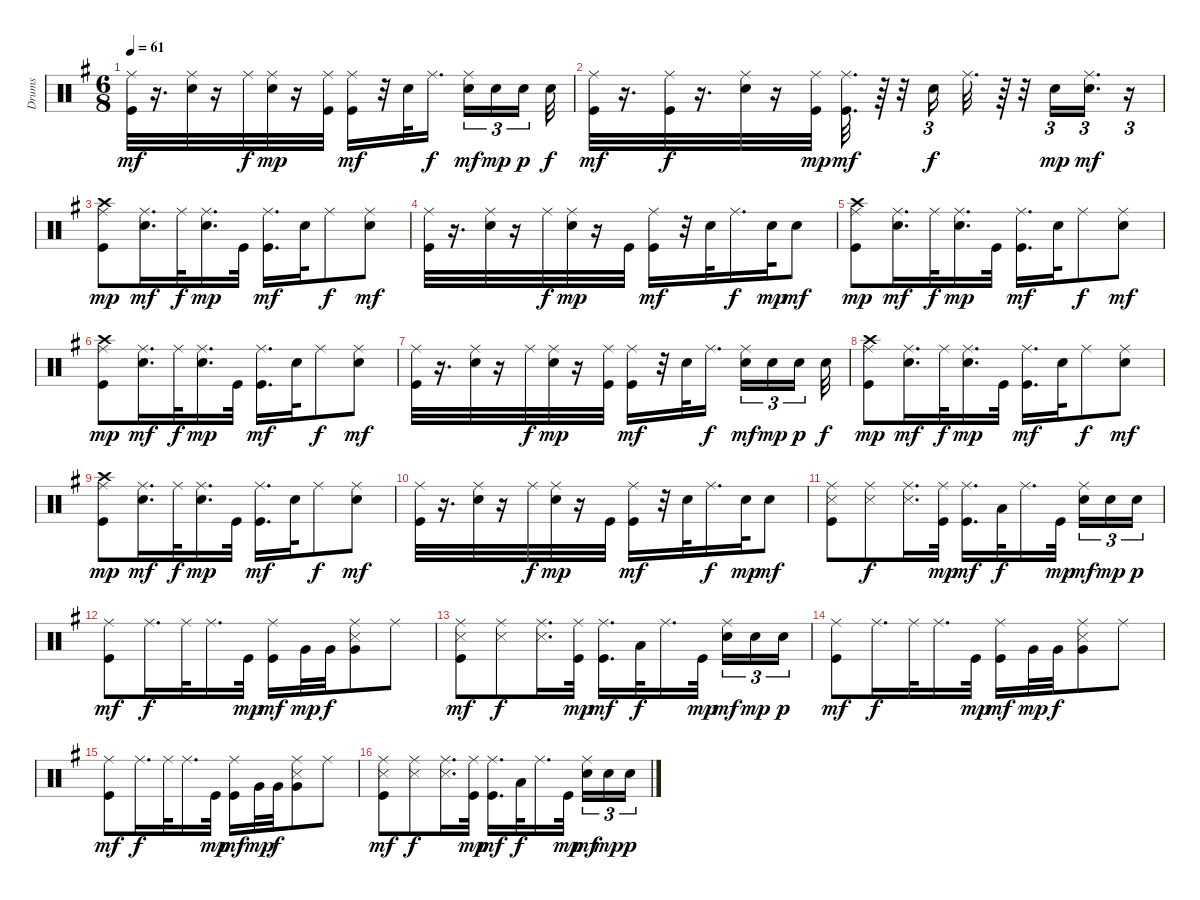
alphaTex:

\track ("Drums" "Drums") {instrument percussion}
\staff {score}
\articulation defaults
\ts (6 8)
\tempo 61
\clef neutral
\ks g
("Kick (hit)" "Ride (middle)").32{dy mf} r.16{d} ("Snare (hit) 2" "Ride (middle)").32 r.16 "Ride (middle)".32{dy f} ("Snare (hit) 2" "Ride (middle)").32{dy mp} r.16 ("Kick (hit)" "Ride (middle)").32 ("Kick (hit)" "Ride (middle)").16{dy mf} r.32 "Snare (hit) 2".32 "Ride (middle)".16{d dy f beam splitsecondary} ("Electric Snare (hit)" "Ride (middle)").16{tu (3 2) dy mf} "Electric Snare (hit)".16{tu (3 2) dy mp} "Electric Snare (hit)".16{tu (3 2) dy p beam splitsecondary} "Electric Snare (hit)".32{dy f} |
("Kick (hit)" "Ride (middle)").32{dy mf} r.16{d} ("Kick (hit)" "Ride (middle)").32{dy f} r.16{d} ("Snare (hit) 2" "Ride (middle)").32 r.16 ("Kick (hit)" "Ride (middle)").32{dy mp} ("Kick (hit)" "Ride (middle)").32{d dy mf} r.64 r.32 "Snare (hit) 2".16{tu (3 2) dy f} "Ride (middle)".32{d} r.64 r.32 "Snare (hit) 2".16{tu (3 2) dy mp} ("Snare (hit) 2" "Ride (middle)").16{d tu (3 2) dy mf} r.16{tu (3 2)} |
("Kick (hit)" "Crash high (hit)" "Ride (middle)").8{dy mp} ("Snare (hit) 2" "Ride (middle)").16{d dy mf} "Ride (middle)".32{dy f} ("Snare (hit) 2" "Ride (middle)").16{d dy mp} "Kick (hit)".32 ("Kick (hit)" "Ride (middle)").16{d dy mf} "Snare (hit) 2".32 "Ride (middle)".8{dy f} ("Snare (hit) 2" "Ride (middle)").8{dy mf} |
("Kick (hit)" "Ride (middle)").32 r.16{d} ("Snare (hit) 2" "Ride (middle)").32 r.16 "Ride (middle)".32{dy f} ("Snare (hit) 2" "Ride (middle)").32{dy mp} r.16 "Kick (hit)".32 ("Kick (hit)" "Ride (middle)").16{dy mf} r.32 "Snare (hit) 2".32 "Ride (middle)".16{d dy f} "Electric Snare (hit)".32{dy mp} "Electric Snare (hit)".8{dy mf} |
("Kick (hit)" "Crash high (hit)" "Ride (middle)").8{dy mp} ("Snare (hit) 2" "Ride (middle)").16{d dy mf} "Ride (middle)".32{dy f} ("Snare (hit) 2" "Ride (middle)").16{d dy mp} "Kick (hit)".32 ("Kick (hit)" "Ride (middle)").16{d dy mf} "Snare (hit) 2".32 "Ride (middle)".8{dy f} ("Snare (hit) 2" "Ride (middle)").8{dy mf} |
("Kick (hit)" "Crash high (hit)" "Ride (middle)").8{dy mp} ("Snare (hit) 2" "Ride (middle)").16{d dy mf} "Ride (middle)".32{dy f} ("Snare (hit) 2" "Ride (middle)").16{d dy mp} "Kick (hit)".32 ("Kick (hit)" "Ride (middle)").16{d dy mf} "Snare (hit) 2".32 "Ride (middle)".8{dy f} ("Snare (hit) 2" "Ride (middle)").8{dy mf} |
("Kick (hit)" "Ride (middle)").32 r.16{d} ("Snare (hit) 2" "Ride (middle)").32 r.16 "Ride (middle)".32{dy f} ("Snare (hit) 2" "Ride (middle)").32{dy mp} r.16 ("Kick (hit)" "Ride (middle)").32 ("Kick (hit)" "Ride (middle)").16{dy mf} r.32 "Snare (hit) 2".32 "Ride (middle)".16{d dy f beam splitsecondary} ("Electric Snare (hit)" "Ride (middle)").16{tu (3 2) dy mf} "Electric Snare (hit)".16{tu (3 2) dy mp} "Electric Snare (hit)".16{tu (3 2) dy p beam splitsecondary} "Electric Snare (hit)".32{dy f} |
("Kick (hit)" "Crash high (hit)" "Ride (middle)").8{dy mp} ("Snare (hit) 2" "Ride (middle)").16{d dy mf} "Ride (middle)".32{dy f} ("Snare (hit) 2" "Ride (middle)").16{d dy mp} "Kick (hit)".32 ("Kick (hit)" "Ride (middle)").16{d dy mf} "Snare (hit) 2".32 "Ride (middle)".8{dy f} ("Snare (hit) 2" "Ride (middle)").8{dy mf} |
("Kick (hit)" "Crash high (hit)" "Ride (middle)").8{dy mp} ("Snare (hit) 2" "Ride (middle)").16{d dy mf} "Ride (middle)".32{dy f} ("Snare (hit) 2" "Ride (middle)").16{d dy mp} "Kick (hit)".32 ("Kick (hit)" "Ride (middle)").16{d dy mf} "Snare (hit) 2".32 "Ride (middle)".8{dy f} ("Snare (hit) 2" "Ride (middle)").8{dy mf} |
("Kick (hit)" "Ride (middle)").32 r.16{d} ("Snare (hit) 2" "Ride (middle)").32 r.16 "Ride (middle)".32{dy f} ("Snare (hit) 2" "Ride (middle)").32{dy mp} r.16 "Kick (hit)".32 ("Kick (hit)" "Ride (middle)").16{dy mf} r.32 "Snare (hit) 2".32 "Ride (middle)".16{d dy f} "Electric Snare (hit)".32{dy mp} "Electric Snare (hit)".8{dy mf} |
("Kick (hit)" "Snare (side stick) 3" "Ride (middle)").8 ("Snare (side stick) 3" "Ride (middle)").8{dy f} ("Snare (side stick) 3" "Ride (middle)").16{d} ("Kick (hit)" "Ride (middle)").32{dy mp} ("Kick (hit)" "Ride (middle)").16{d dy mf} "Low Tom (hit)".32{dy f} "Ride (middle)".16{d} "Kick (hit)".32{dy mp beam splitsecondary} ("Electric Snare (hit)" "Ride (middle)").16{tu (3 2) dy mf} "Electric Snare (hit)".16{tu (3 2) dy mp} "Electric Snare (hit)".16{tu (3 2) dy p} |
("Kick (hit)" "Ride (middle)").8{dy mf} "Ride (middle)".16{d dy f} "Ride (middle)".32 "Ride (middle)".16{d} "Kick (hit)".32{dy mp} ("Kick (hit)" "Ride (middle)").16{dy mf} "Very Low Tom (hit)".32{dy mp} "Very Low Tom (hit)".32{dy f} ("Snare (side stick) 3" "Very Low Tom (hit)" "Ride (middle)").8 "Ride (middle)".8 |
("Kick (hit)" "Snare (side stick) 3" "Ride (middle)").8{dy mf} ("Snare (side stick) 3" "Ride (middle)").8{dy f} ("Snare (side stick) 3" "Ride (middle)").16{d} ("Kick (hit)" "Ride (middle)").32{dy mp} ("Kick (hit)" "Ride (middle)").16{d dy mf} "Low Tom (hit)".32{dy f} "Ride (middle)".16{d} "Kick (hit)".32{dy mp beam splitsecondary} ("Electric Snare (hit)" "Ride (middle)").16{tu (3 2) dy mf} "Electric Snare (hit)".16{tu (3 2) dy mp} "Electric Snare (hit)".16{tu (3 2) dy p} |
("Kick (hit)" "Ride (middle)").8{dy mf} "Ride (middle)".16{d dy f} "Ride (middle)".32 "Ride (middle)".16{d} "Kick (hit)".32{dy mp} ("Kick (hit)" "Ride (middle)").16{dy mf} "Very Low Tom (hit)".32{dy mp} "Very Low Tom (hit)".32{dy f} ("Snare (side stick) 3" "Very Low Tom (hit)" "Ride (middle)").8 "Ride (middle)".8 |
("Kick (hit)" "Ride (middle)").8{dy mf} "Ride (middle)".16{d dy f} "Ride (middle)".32 "Ride (middle)".16{d} "Kick (hit)".32{dy mp} ("Kick (hit)" "Ride (middle)").16{dy mf} "Very Low Tom (hit)".32{dy mp} "Very Low Tom (hit)".32{dy f} ("Snare (side stick) 3" "Very Low Tom (hit)" "Ride (middle)").8 "Ride (middle)".8 |
("Kick (hit)" "Snare (side stick) 3" "Ride (middle)").8{dy mf} ("Snare (side stick) 3" "Ride (middle)").8{dy f} ("Snare (side stick) 3" "Ride (middle)").16{d} ("Kick (hit)" "Ride (middle)").32{dy mp} ("Kick (hit)" "Ride (middle)").16{d dy mf} "Low Tom (hit)".32{dy f} "Ride (middle)".16{d} "Kick (hit)".32{dy mp beam splitsecondary} ("Electric Snare (hit)" "Ride (middle)").16{tu (3 2) dy mf} "Electric Snare (hit)".16{tu (3 2) dy mp} "Electric Snare (hit)".16{tu (3 2) dy p}
